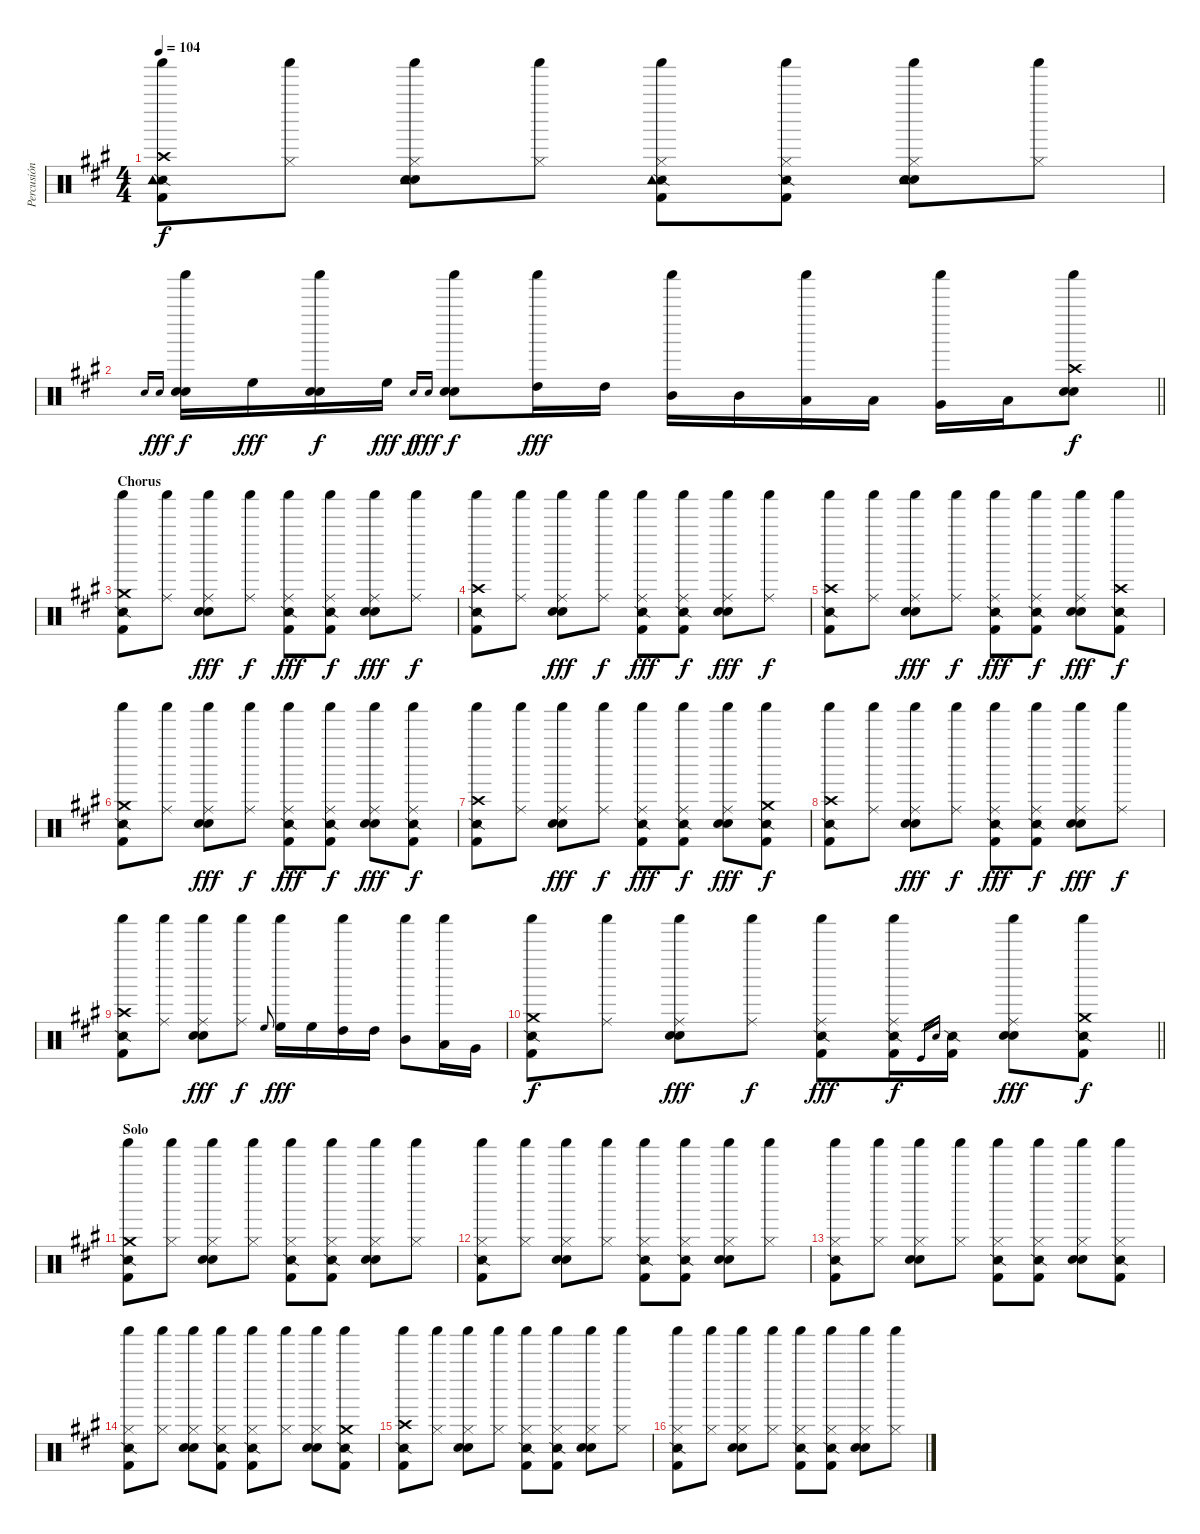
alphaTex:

\track ("Percusión" "Percusión") {instrument percussion}
\staff {score}
\articulation defaults
\ts (4 4)
\tempo 104
\clef neutral
\ks a
("Crash high (hit)" "Kick (hit) 2" "Snare (side stick) 2" "Tambourine (hit)" "Shaker (hit)").8{dy f} ("Hi-Hat (closed)" "Shaker (hit)").8 ("Hi-Hat (closed)" "Snare (hit) 2" "Electric Snare (hit)" "Tambourine (hit)" "Shaker (hit)").8 ("Hi-Hat (closed)" "Shaker (hit)").8 ("Hi-Hat (closed)" "Kick (hit) 2" "Snare (side stick) 2" "Tambourine (hit)" "Shaker (hit)").8 ("Hi-Hat (closed)" "Kick (hit) 2" "Snare (side stick) 2" "Shaker (hit)").8 ("Hi-Hat (closed)" "Snare (hit) 2" "Electric Snare (hit)" "Tambourine (hit)" "Shaker (hit)").8 ("Hi-Hat (closed)" "Shaker (hit)").8 |
\barLineRight lightlight "Snare (hit) 2".16{gr onbeat} "Electric Snare (hit)".16{gr onbeat dy fff}
("Snare (hit) 2" "Electric Snare (hit)" "Shaker (hit)").16{dy f} "High Floor Tom (hit)".16{dy fff} ("Snare (hit) 2" "Electric Snare (hit)" "Shaker (hit)").16{dy f} "High Floor Tom (hit)".16{dy fff} "Snare (hit) 2".16{gr onbeat dy f} "Electric Snare (hit)".16{gr onbeat dy fff} ("Snare (hit) 2" "Electric Snare (hit)" "Shaker (hit)").8{dy f} ("High Tom (hit)" "Shaker (hit)").16{dy fff} "High Tom (hit)".16 ("Mid Tom (hit)" "Shaker (hit)").16 "Mid Tom (hit)".16 ("Low Tom (hit)" "Shaker (hit)").16 "Low Tom (hit)".16 ("Very Low Tom (hit)" "Shaker (hit)").16 "Low Floor Tom (hit)".16 ("Crash high (hit)" "Snare (hit) 2" "Electric Snare (hit)" "Shaker (hit)").8{dy f} |
\section ("" "Chorus")
("Crash medium (hit)" "Kick (hit) 2" "Snare (side stick) 2" "Shaker (hit)").8 ("Ride (middle)" "Shaker (hit)").8 ("Ride (middle)" "Snare (hit) 2" "Electric Snare (hit)" "Shaker (hit)").8{dy fff} ("Ride (middle)" "Shaker (hit)").8{dy f} ("Ride (middle)" "Kick (hit) 2" "Snare (side stick) 2" "Shaker (hit)").8{dy fff} ("Ride (middle)" "Kick (hit) 2" "Snare (side stick) 2" "Shaker (hit)").8{dy f} ("Ride (middle)" "Snare (hit) 2" "Electric Snare (hit)" "Shaker (hit)").8{dy fff} ("Ride (middle)" "Shaker (hit)").8{dy f} |
("Crash high (hit)" "Kick (hit) 2" "Snare (side stick) 2" "Shaker (hit)").8 ("Ride (middle)" "Shaker (hit)").8 ("Ride (middle)" "Snare (hit) 2" "Electric Snare (hit)" "Shaker (hit)").8{dy fff} ("Ride (middle)" "Shaker (hit)").8{dy f} ("Ride (middle)" "Kick (hit) 2" "Snare (side stick) 2" "Shaker (hit)").8{dy fff} ("Ride (middle)" "Kick (hit) 2" "Snare (side stick) 2" "Shaker (hit)").8{dy f} ("Ride (middle)" "Snare (hit) 2" "Electric Snare (hit)" "Shaker (hit)").8{dy fff} ("Ride (middle)" "Shaker (hit)").8{dy f} |
("Crash high (hit)" "Kick (hit) 2" "Snare (side stick) 2" "Shaker (hit)").8 ("Ride (middle)" "Shaker (hit)").8 ("Ride (middle)" "Snare (hit) 2" "Electric Snare (hit)" "Shaker (hit)").8{dy fff} ("Ride (middle)" "Shaker (hit)").8{dy f} ("Ride (middle)" "Kick (hit) 2" "Snare (side stick) 2" "Shaker (hit)").8{dy fff} ("Ride (middle)" "Kick (hit) 2" "Snare (side stick) 2" "Shaker (hit)").8{dy f} ("Ride (middle)" "Snare (hit) 2" "Electric Snare (hit)" "Shaker (hit)").8{dy fff} ("Crash high (hit)" "Kick (hit) 2" "Snare (side stick) 2" "Shaker (hit)").8{dy f} |
("Crash medium (hit)" "Kick (hit) 2" "Snare (side stick) 2" "Shaker (hit)").8 ("Ride (middle)" "Shaker (hit)").8 ("Ride (middle)" "Snare (hit) 2" "Electric Snare (hit)" "Shaker (hit)").8{dy fff} ("Ride (middle)" "Shaker (hit)").8{dy f} ("Ride (middle)" "Kick (hit) 2" "Snare (side stick) 2" "Shaker (hit)").8{dy fff} ("Ride (middle)" "Kick (hit) 2" "Snare (side stick) 2" "Shaker (hit)").8{dy f} ("Ride (middle)" "Snare (hit) 2" "Electric Snare (hit)" "Shaker (hit)").8{dy fff} ("Ride (middle)" "Kick (hit) 2" "Snare (side stick) 2" "Shaker (hit)").8{dy f} |
("Crash high (hit)" "Kick (hit) 2" "Snare (side stick) 2" "Shaker (hit)").8 ("Ride (middle)" "Shaker (hit)").8 ("Ride (middle)" "Snare (hit) 2" "Electric Snare (hit)" "Shaker (hit)").8{dy fff} ("Ride (middle)" "Shaker (hit)").8{dy f} ("Ride (middle)" "Kick (hit) 2" "Snare (side stick) 2" "Shaker (hit)").8{dy fff} ("Ride (middle)" "Kick (hit) 2" "Snare (side stick) 2" "Shaker (hit)").8{dy f} ("Ride (middle)" "Snare (hit) 2" "Electric Snare (hit)" "Shaker (hit)").8{dy fff} ("Crash medium (hit)" "Kick (hit) 2" "Snare (side stick) 2" "Shaker (hit)").8{dy f} |
("Crash high (hit)" "Kick (hit) 2" "Snare (side stick) 2" "Shaker (hit)").8 ("Ride (middle)" "Shaker (hit)").8 ("Ride (middle)" "Snare (hit) 2" "Electric Snare (hit)" "Shaker (hit)").8{dy fff} ("Ride (middle)" "Shaker (hit)").8{dy f} ("Ride (middle)" "Kick (hit) 2" "Snare (side stick) 2" "Shaker (hit)").8{dy fff} ("Ride (middle)" "Kick (hit) 2" "Snare (side stick) 2" "Shaker (hit)").8{dy f} ("Ride (middle)" "Snare (hit) 2" "Electric Snare (hit)" "Shaker (hit)").8{dy fff} ("Ride (middle)" "Shaker (hit)").8{dy f} |
("Crash high (hit)" "Kick (hit) 2" "Snare (side stick) 2" "Shaker (hit)").8 ("Ride (middle)" "Shaker (hit)").8 ("Ride (middle)" "Snare (hit) 2" "Electric Snare (hit)" "Shaker (hit)").8{dy fff} ("Ride (middle)" "Shaker (hit)").8{dy f} "High Floor Tom (hit)".8{gr onbeat} ("High Floor Tom (hit)" "Shaker (hit)").16{dy fff} "High Floor Tom (hit)".16 ("High Tom (hit)" "Shaker (hit)").16 "High Tom (hit)".16 ("Mid Tom (hit)" "Shaker (hit)").8 ("Low Tom (hit)" "Shaker (hit)").16 "Very Low Tom (hit)".16 |
\barLineRight lightlight
("Crash medium (hit)" "Kick (hit) 2" "Snare (side stick) 2" "Shaker (hit)").8{dy f} ("Ride (middle)" "Shaker (hit)").8 ("Ride (middle)" "Snare (hit) 2" "Electric Snare (hit)" "Shaker (hit)").8{dy fff} ("Ride (middle)" "Shaker (hit)").8{dy f} ("Ride (middle)" "Kick (hit) 2" "Snare (side stick) 2" "Shaker (hit)").8{dy fff} ("Ride (middle)" "Kick (hit) 2" "Snare (side stick) 2" "Shaker (hit)").16{dy f} "Kick (hit)".16{gr} "Snare (hit)".16{gr} ("Kick (hit) 2" "Snare (side stick) 2").16 ("Ride (middle)" "Snare (hit) 2" "Electric Snare (hit)" "Shaker (hit)").8{dy fff} ("Crash medium (hit)" "Kick (hit) 2" "Snare (side stick) 2" "Shaker (hit)").8{dy f} |
\section ("" "Solo")
("Crash medium (hit)" "Kick (hit) 2" "Snare (side stick) 2" "Shaker (hit)").8 ("Hi-Hat (closed)" "Shaker (hit)").8 ("Hi-Hat (closed)" "Snare (hit) 2" "Electric Snare (hit)" "Shaker (hit)").8 ("Hi-Hat (closed)" "Shaker (hit)").8 ("Hi-Hat (closed)" "Kick (hit) 2" "Snare (side stick) 2" "Shaker (hit)").8 ("Hi-Hat (closed)" "Kick (hit) 2" "Snare (side stick) 2" "Shaker (hit)").8 ("Hi-Hat (closed)" "Snare (hit) 2" "Electric Snare (hit)" "Shaker (hit)").8 ("Hi-Hat (closed)" "Shaker (hit)").8 |
("Hi-Hat (closed)" "Kick (hit) 2" "Snare (side stick) 2" "Shaker (hit)").8 ("Hi-Hat (closed)" "Shaker (hit)").8 ("Hi-Hat (closed)" "Snare (hit) 2" "Electric Snare (hit)" "Shaker (hit)").8 ("Hi-Hat (closed)" "Shaker (hit)").8 ("Hi-Hat (closed)" "Kick (hit) 2" "Snare (side stick) 2" "Shaker (hit)").8 ("Hi-Hat (closed)" "Kick (hit) 2" "Snare (side stick) 2" "Shaker (hit)").8 ("Hi-Hat (closed)" "Snare (hit) 2" "Electric Snare (hit)" "Shaker (hit)").8 ("Hi-Hat (closed)" "Shaker (hit)").8 |
("Hi-Hat (closed)" "Kick (hit) 2" "Snare (side stick) 2" "Shaker (hit)").8 ("Hi-Hat (closed)" "Shaker (hit)").8 ("Hi-Hat (closed)" "Snare (hit) 2" "Electric Snare (hit)" "Shaker (hit)").8 ("Hi-Hat (closed)" "Shaker (hit)").8 ("Hi-Hat (closed)" "Kick (hit) 2" "Snare (side stick) 2" "Shaker (hit)").8 ("Hi-Hat (closed)" "Kick (hit) 2" "Snare (side stick) 2" "Shaker (hit)").8 ("Hi-Hat (closed)" "Snare (hit) 2" "Electric Snare (hit)" "Shaker (hit)").8 ("Hi-Hat (closed)" "Kick (hit) 2" "Snare (side stick) 2" "Shaker (hit)").8 |
("Hi-Hat (closed)" "Kick (hit) 2" "Snare (side stick) 2" "Shaker (hit)").8 ("Hi-Hat (closed)" "Shaker (hit)").8 ("Hi-Hat (closed)" "Snare (hit) 2" "Electric Snare (hit)" "Shaker (hit)").8 ("Hi-Hat (closed)" "Kick (hit) 2" "Snare (side stick) 2" "Shaker (hit)").8 ("Hi-Hat (closed)" "Kick (hit) 2" "Snare (side stick) 2" "Shaker (hit)").8 ("Hi-Hat (closed)" "Shaker (hit)").8 ("Hi-Hat (closed)" "Snare (hit) 2" "Electric Snare (hit)" "Shaker (hit)").8 ("Crash medium (hit)" "Kick (hit) 2" "Snare (side stick) 2" "Shaker (hit)").8 |
("Crash high (hit)" "Kick (hit) 2" "Snare (side stick) 2" "Shaker (hit)").8 ("Hi-Hat (closed)" "Shaker (hit)").8 ("Hi-Hat (closed)" "Snare (hit) 2" "Electric Snare (hit)" "Shaker (hit)").8 ("Hi-Hat (closed)" "Shaker (hit)").8 ("Hi-Hat (closed)" "Kick (hit) 2" "Snare (side stick) 2" "Shaker (hit)").8 ("Hi-Hat (closed)" "Kick (hit) 2" "Snare (side stick) 2" "Shaker (hit)").8 ("Hi-Hat (closed)" "Snare (hit) 2" "Electric Snare (hit)" "Shaker (hit)").8 ("Hi-Hat (closed)" "Shaker (hit)").8 |
("Hi-Hat (closed)" "Kick (hit) 2" "Snare (side stick) 2" "Shaker (hit)").8 ("Hi-Hat (closed)" "Shaker (hit)").8 ("Hi-Hat (closed)" "Snare (hit) 2" "Electric Snare (hit)" "Shaker (hit)").8 ("Hi-Hat (closed)" "Shaker (hit)").8 ("Hi-Hat (closed)" "Kick (hit) 2" "Snare (side stick) 2" "Shaker (hit)").8 ("Hi-Hat (closed)" "Kick (hit) 2" "Snare (side stick) 2" "Shaker (hit)").8 ("Hi-Hat (closed)" "Snare (hit) 2" "Electric Snare (hit)" "Shaker (hit)").8 ("Hi-Hat (closed)" "Shaker (hit)").8
